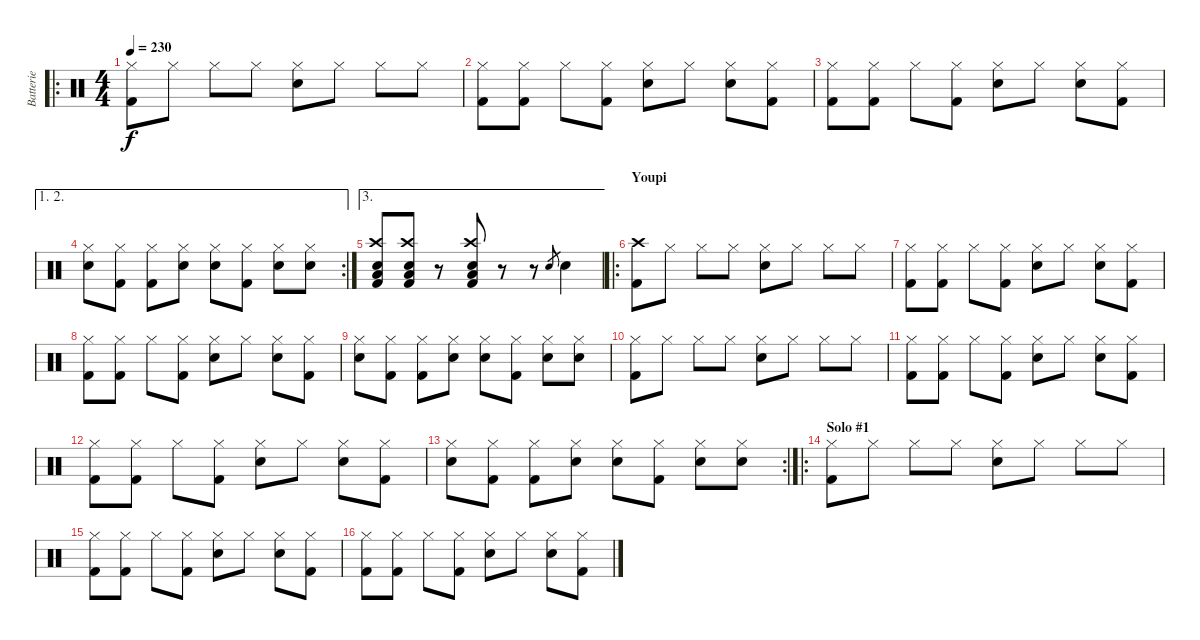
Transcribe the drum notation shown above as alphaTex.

\track ("Batterie" "Batterie") {instrument percussion}
\staff {score}
\articulation defaults
\ro
\ts (4 4)
\tempo 230
\clef neutral
\ks c
("Hi-Hat (closed)" "Kick (hit) 2").8{dy f} "Hi-Hat (closed)".8 "Hi-Hat (closed)".8 "Hi-Hat (closed)".8 ("Hi-Hat (closed)" "Snare (hit) 2").8 "Hi-Hat (closed)".8 "Hi-Hat (closed)".8 "Hi-Hat (closed)".8 |
("Hi-Hat (closed)" "Kick (hit) 2").8 ("Hi-Hat (closed)" "Kick (hit) 2").8 "Hi-Hat (closed)".8 ("Hi-Hat (closed)" "Kick (hit) 2").8 ("Hi-Hat (closed)" "Snare (hit) 2").8 "Hi-Hat (closed)".8 ("Hi-Hat (closed)" "Snare (hit) 2").8 ("Hi-Hat (closed)" "Kick (hit) 2").8 |
("Hi-Hat (closed)" "Kick (hit) 2").8 ("Hi-Hat (closed)" "Kick (hit) 2").8 "Hi-Hat (closed)".8 ("Hi-Hat (closed)" "Kick (hit) 2").8 ("Hi-Hat (closed)" "Snare (hit) 2").8 "Hi-Hat (closed)".8 ("Hi-Hat (closed)" "Snare (hit) 2").8 ("Hi-Hat (closed)" "Kick (hit) 2").8 |
\ae (1 2)
\rc 2
("Hi-Hat (closed)" "Snare (hit) 2").8 ("Hi-Hat (closed)" "Kick (hit) 2").8 ("Hi-Hat (closed)" "Kick (hit) 2").8 ("Hi-Hat (closed)" "Snare (hit) 2").8 ("Hi-Hat (closed)" "Snare (hit) 2").8 ("Hi-Hat (closed)" "Kick (hit) 2").8 ("Hi-Hat (closed)" "Snare (hit) 2").8 ("Hi-Hat (closed)" "Snare (hit) 2").8 |
\ae 3
("Crash high (hit)" "Snare (hit) 2" "Low Floor Tom (hit)" "Kick (hit) 2").8 ("Crash high (hit)" "Snare (hit) 2" "Low Floor Tom (hit)" "Kick (hit) 2").8 r.8 ("Crash high (hit)" "Snare (hit) 2" "Low Floor Tom (hit)" "Kick (hit) 2").8 r.8 r.8 "Snare (hit) 2".8{gr} "Snare (hit) 2".4 |
\ro
\section ("" "Youpi")
("Crash high (hit)" "Kick (hit) 2").8 "Hi-Hat (closed)".8 "Hi-Hat (closed)".8 "Hi-Hat (closed)".8 ("Hi-Hat (closed)" "Snare (hit) 2").8 "Hi-Hat (closed)".8 "Hi-Hat (closed)".8 "Hi-Hat (closed)".8 |
("Hi-Hat (closed)" "Kick (hit) 2").8 ("Hi-Hat (closed)" "Kick (hit) 2").8 "Hi-Hat (closed)".8 ("Hi-Hat (closed)" "Kick (hit) 2").8 ("Hi-Hat (closed)" "Snare (hit) 2").8 "Hi-Hat (closed)".8 ("Hi-Hat (closed)" "Snare (hit) 2").8 ("Hi-Hat (closed)" "Kick (hit) 2").8 |
("Hi-Hat (closed)" "Kick (hit) 2").8 ("Hi-Hat (closed)" "Kick (hit) 2").8 "Hi-Hat (closed)".8 ("Hi-Hat (closed)" "Kick (hit) 2").8 ("Hi-Hat (closed)" "Snare (hit) 2").8 "Hi-Hat (closed)".8 ("Hi-Hat (closed)" "Snare (hit) 2").8 ("Hi-Hat (closed)" "Kick (hit) 2").8 |
("Hi-Hat (closed)" "Snare (hit) 2").8 ("Hi-Hat (closed)" "Kick (hit) 2").8 ("Hi-Hat (closed)" "Kick (hit) 2").8 ("Hi-Hat (closed)" "Snare (hit) 2").8 ("Hi-Hat (closed)" "Snare (hit) 2").8 ("Hi-Hat (closed)" "Kick (hit) 2").8 ("Hi-Hat (closed)" "Snare (hit) 2").8 ("Hi-Hat (closed)" "Snare (hit) 2").8 |
("Hi-Hat (closed)" "Kick (hit) 2").8 "Hi-Hat (closed)".8 "Hi-Hat (closed)".8 "Hi-Hat (closed)".8 ("Hi-Hat (closed)" "Snare (hit) 2").8 "Hi-Hat (closed)".8 "Hi-Hat (closed)".8 "Hi-Hat (closed)".8 |
("Hi-Hat (closed)" "Kick (hit) 2").8 ("Hi-Hat (closed)" "Kick (hit) 2").8 "Hi-Hat (closed)".8 ("Hi-Hat (closed)" "Kick (hit) 2").8 ("Hi-Hat (closed)" "Snare (hit) 2").8 "Hi-Hat (closed)".8 ("Hi-Hat (closed)" "Snare (hit) 2").8 ("Hi-Hat (closed)" "Kick (hit) 2").8 |
("Hi-Hat (closed)" "Kick (hit) 2").8 ("Hi-Hat (closed)" "Kick (hit) 2").8 "Hi-Hat (closed)".8 ("Hi-Hat (closed)" "Kick (hit) 2").8 ("Hi-Hat (closed)" "Snare (hit) 2").8 "Hi-Hat (closed)".8 ("Hi-Hat (closed)" "Snare (hit) 2").8 ("Hi-Hat (closed)" "Kick (hit) 2").8 |
\rc 2
("Hi-Hat (closed)" "Snare (hit) 2").8 ("Hi-Hat (closed)" "Kick (hit) 2").8 ("Hi-Hat (closed)" "Kick (hit) 2").8 ("Hi-Hat (closed)" "Snare (hit) 2").8 ("Hi-Hat (closed)" "Snare (hit) 2").8 ("Hi-Hat (closed)" "Kick (hit) 2").8 ("Hi-Hat (closed)" "Snare (hit) 2").8 ("Hi-Hat (closed)" "Snare (hit) 2").8 |
\ro
\section ("" "Solo #1")
("Hi-Hat (closed)" "Kick (hit) 2").8 "Hi-Hat (closed)".8 "Hi-Hat (closed)".8 "Hi-Hat (closed)".8 ("Hi-Hat (closed)" "Snare (hit) 2").8 "Hi-Hat (closed)".8 "Hi-Hat (closed)".8 "Hi-Hat (closed)".8 |
("Hi-Hat (closed)" "Kick (hit) 2").8 ("Hi-Hat (closed)" "Kick (hit) 2").8 "Hi-Hat (closed)".8 ("Hi-Hat (closed)" "Kick (hit) 2").8 ("Hi-Hat (closed)" "Snare (hit) 2").8 "Hi-Hat (closed)".8 ("Hi-Hat (closed)" "Snare (hit) 2").8 ("Hi-Hat (closed)" "Kick (hit) 2").8 |
("Hi-Hat (closed)" "Kick (hit) 2").8 ("Hi-Hat (closed)" "Kick (hit) 2").8 "Hi-Hat (closed)".8 ("Hi-Hat (closed)" "Kick (hit) 2").8 ("Hi-Hat (closed)" "Snare (hit) 2").8 "Hi-Hat (closed)".8 ("Hi-Hat (closed)" "Snare (hit) 2").8 ("Hi-Hat (closed)" "Kick (hit) 2").8
